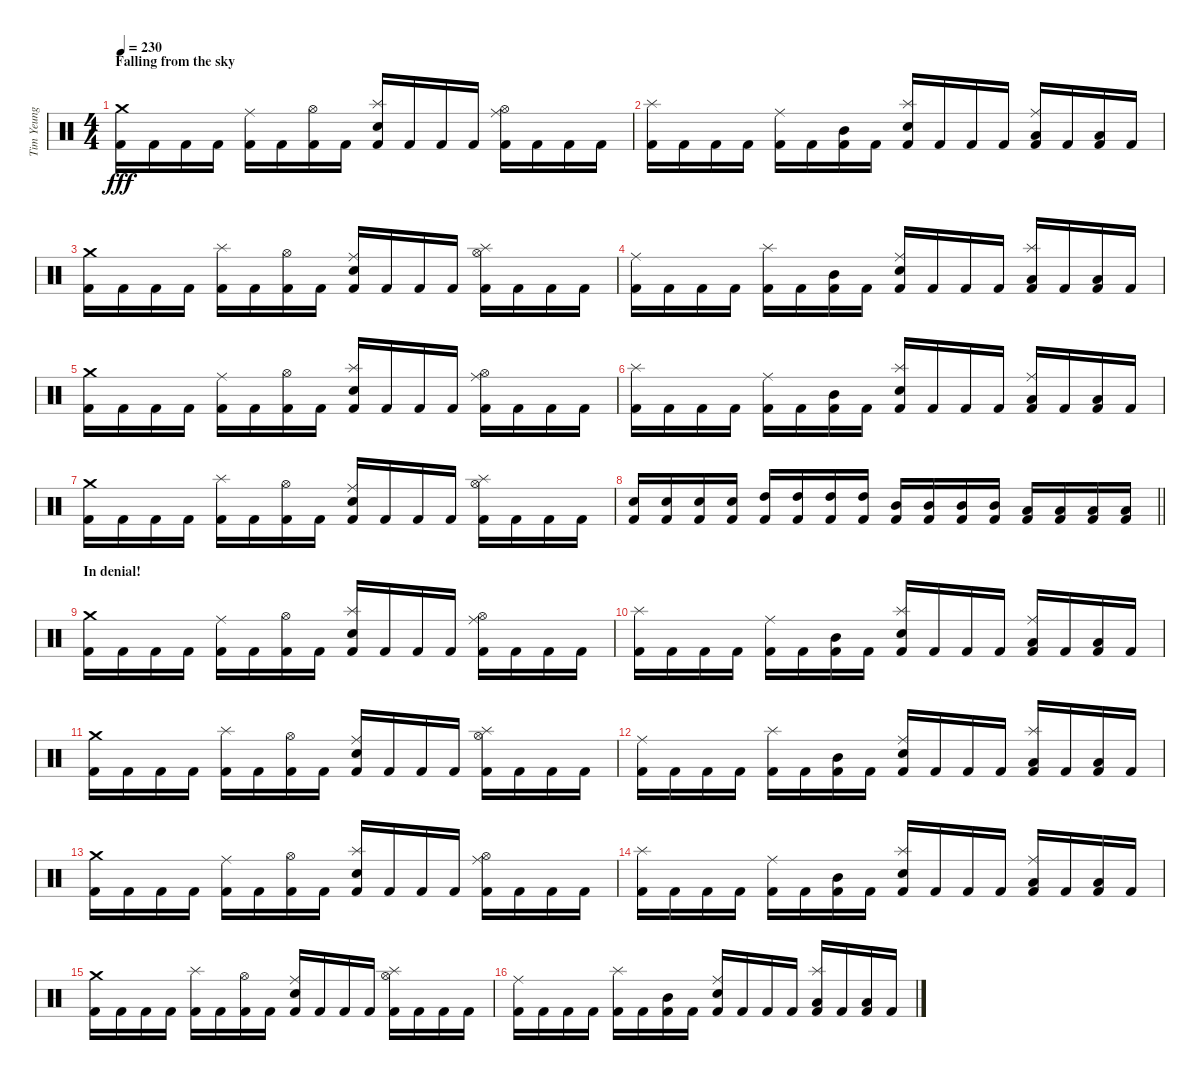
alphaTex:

\track ("Tim Yeung" "Tim Yeung") {instrument percussion}
\staff {score}
\articulation defaults
\ts (4 4)
\section ("" "Falling from the sky")
\tempo 230
\clef neutral
\ks c
("Crash medium (hit)" "Kick (hit) 2").16{dy fff} "Kick (hit) 2".16 "Kick (hit) 2".16 "Kick (hit) 2".16 ("Ride (middle)" "Kick (hit) 2").16 "Kick (hit) 2".16 ("Hi-Hat (open)" "Kick (hit) 2").16 "Kick (hit) 2".16 ("Splash (hit)" "Electric Snare (hit)" "Kick (hit) 2").16 "Kick (hit) 2".16 "Kick (hit) 2".16 "Kick (hit) 2".16 ("Ride (middle)" "Hi-Hat (open)" "Kick (hit) 2").16 "Kick (hit) 2".16 "Kick (hit) 2".16 "Kick (hit) 2".16 |
("Splash (hit)" "Kick (hit) 2").16 "Kick (hit) 2".16 "Kick (hit) 2".16 "Kick (hit) 2".16 ("Ride (middle)" "Kick (hit) 2").16 "Kick (hit) 2".16 ("Mid Tom (hit)" "Kick (hit) 2").16 "Kick (hit) 2".16 ("Splash (hit)" "Electric Snare (hit)" "Kick (hit) 2").16 "Kick (hit) 2".16 "Kick (hit) 2".16 "Kick (hit) 2".16 ("Ride (middle)" "Low Tom (hit)" "Kick (hit) 2").16 "Kick (hit) 2".16 ("Low Tom (hit)" "Kick (hit) 2").16 "Kick (hit) 2".16 |
("Crash medium (hit)" "Kick (hit) 2").16 "Kick (hit) 2".16 "Kick (hit) 2".16 "Kick (hit) 2".16 ("Splash (hit)" "Kick (hit) 2").16 "Kick (hit) 2".16 ("Hi-Hat (open)" "Kick (hit) 2").16 "Kick (hit) 2".16 ("Ride (middle)" "Electric Snare (hit)" "Kick (hit) 2").16 "Kick (hit) 2".16 "Kick (hit) 2".16 "Kick (hit) 2".16 ("Splash (hit)" "Hi-Hat (open)" "Kick (hit) 2").16 "Kick (hit) 2".16 "Kick (hit) 2".16 "Kick (hit) 2".16 |
("Ride (middle)" "Kick (hit) 2").16 "Kick (hit) 2".16 "Kick (hit) 2".16 "Kick (hit) 2".16 ("Splash (hit)" "Kick (hit) 2").16 "Kick (hit) 2".16 ("Mid Tom (hit)" "Kick (hit) 2").16 "Kick (hit) 2".16 ("Ride (middle)" "Electric Snare (hit)" "Kick (hit) 2").16 "Kick (hit) 2".16 "Kick (hit) 2".16 "Kick (hit) 2".16 ("Splash (hit)" "Low Tom (hit)" "Kick (hit) 2").16 "Kick (hit) 2".16 ("Low Tom (hit)" "Kick (hit) 2").16 "Kick (hit) 2".16 |
("Crash medium (hit)" "Kick (hit) 2").16 "Kick (hit) 2".16 "Kick (hit) 2".16 "Kick (hit) 2".16 ("Ride (middle)" "Kick (hit) 2").16 "Kick (hit) 2".16 ("Hi-Hat (open)" "Kick (hit) 2").16 "Kick (hit) 2".16 ("Splash (hit)" "Electric Snare (hit)" "Kick (hit) 2").16 "Kick (hit) 2".16 "Kick (hit) 2".16 "Kick (hit) 2".16 ("Ride (middle)" "Hi-Hat (open)" "Kick (hit) 2").16 "Kick (hit) 2".16 "Kick (hit) 2".16 "Kick (hit) 2".16 |
("Splash (hit)" "Kick (hit) 2").16 "Kick (hit) 2".16 "Kick (hit) 2".16 "Kick (hit) 2".16 ("Ride (middle)" "Kick (hit) 2").16 "Kick (hit) 2".16 ("Mid Tom (hit)" "Kick (hit) 2").16 "Kick (hit) 2".16 ("Splash (hit)" "Electric Snare (hit)" "Kick (hit) 2").16 "Kick (hit) 2".16 "Kick (hit) 2".16 "Kick (hit) 2".16 ("Ride (middle)" "Low Tom (hit)" "Kick (hit) 2").16 "Kick (hit) 2".16 ("Low Tom (hit)" "Kick (hit) 2").16 "Kick (hit) 2".16 |
("Crash medium (hit)" "Kick (hit) 2").16 "Kick (hit) 2".16 "Kick (hit) 2".16 "Kick (hit) 2".16 ("Splash (hit)" "Kick (hit) 2").16 "Kick (hit) 2".16 ("Hi-Hat (open)" "Kick (hit) 2").16 "Kick (hit) 2".16 ("Ride (middle)" "Electric Snare (hit)" "Kick (hit) 2").16 "Kick (hit) 2".16 "Kick (hit) 2".16 "Kick (hit) 2".16 ("Splash (hit)" "Hi-Hat (open)" "Kick (hit) 2").16 "Kick (hit) 2".16 "Kick (hit) 2".16 "Kick (hit) 2".16 |
\barLineRight lightlight
("Electric Snare (hit)" "Kick (hit) 2").16 ("Electric Snare (hit)" "Kick (hit) 2").16 ("Electric Snare (hit)" "Kick (hit) 2").16 ("Electric Snare (hit)" "Kick (hit) 2").16 ("High Tom (hit)" "Kick (hit) 2").16 ("High Tom (hit)" "Kick (hit) 2").16 ("High Tom (hit)" "Kick (hit) 2").16 ("High Tom (hit)" "Kick (hit) 2").16 ("Mid Tom (hit)" "Kick (hit) 2").16 ("Mid Tom (hit)" "Kick (hit) 2").16 ("Mid Tom (hit)" "Kick (hit) 2").16 ("Mid Tom (hit)" "Kick (hit) 2").16 ("Low Tom (hit)" "Kick (hit) 2").16 ("Low Tom (hit)" "Kick (hit) 2").16 ("Low Tom (hit)" "Kick (hit) 2").16 ("Low Tom (hit)" "Kick (hit) 2").16 |
\section ("" "In denial!")
("Crash medium (hit)" "Kick (hit) 2").16 "Kick (hit) 2".16 "Kick (hit) 2".16 "Kick (hit) 2".16 ("Ride (middle)" "Kick (hit) 2").16 "Kick (hit) 2".16 ("Hi-Hat (open)" "Kick (hit) 2").16 "Kick (hit) 2".16 ("Splash (hit)" "Electric Snare (hit)" "Kick (hit) 2").16 "Kick (hit) 2".16 "Kick (hit) 2".16 "Kick (hit) 2".16 ("Ride (middle)" "Hi-Hat (open)" "Kick (hit) 2").16 "Kick (hit) 2".16 "Kick (hit) 2".16 "Kick (hit) 2".16 |
("Splash (hit)" "Kick (hit) 2").16 "Kick (hit) 2".16 "Kick (hit) 2".16 "Kick (hit) 2".16 ("Ride (middle)" "Kick (hit) 2").16 "Kick (hit) 2".16 ("Mid Tom (hit)" "Kick (hit) 2").16 "Kick (hit) 2".16 ("Splash (hit)" "Electric Snare (hit)" "Kick (hit) 2").16 "Kick (hit) 2".16 "Kick (hit) 2".16 "Kick (hit) 2".16 ("Ride (middle)" "Low Tom (hit)" "Kick (hit) 2").16 "Kick (hit) 2".16 ("Low Tom (hit)" "Kick (hit) 2").16 "Kick (hit) 2".16 |
("Crash medium (hit)" "Kick (hit) 2").16 "Kick (hit) 2".16 "Kick (hit) 2".16 "Kick (hit) 2".16 ("Splash (hit)" "Kick (hit) 2").16 "Kick (hit) 2".16 ("Hi-Hat (open)" "Kick (hit) 2").16 "Kick (hit) 2".16 ("Ride (middle)" "Electric Snare (hit)" "Kick (hit) 2").16 "Kick (hit) 2".16 "Kick (hit) 2".16 "Kick (hit) 2".16 ("Splash (hit)" "Hi-Hat (open)" "Kick (hit) 2").16 "Kick (hit) 2".16 "Kick (hit) 2".16 "Kick (hit) 2".16 |
("Ride (middle)" "Kick (hit) 2").16 "Kick (hit) 2".16 "Kick (hit) 2".16 "Kick (hit) 2".16 ("Splash (hit)" "Kick (hit) 2").16 "Kick (hit) 2".16 ("Mid Tom (hit)" "Kick (hit) 2").16 "Kick (hit) 2".16 ("Ride (middle)" "Electric Snare (hit)" "Kick (hit) 2").16 "Kick (hit) 2".16 "Kick (hit) 2".16 "Kick (hit) 2".16 ("Splash (hit)" "Low Tom (hit)" "Kick (hit) 2").16 "Kick (hit) 2".16 ("Low Tom (hit)" "Kick (hit) 2").16 "Kick (hit) 2".16 |
("Crash medium (hit)" "Kick (hit) 2").16 "Kick (hit) 2".16 "Kick (hit) 2".16 "Kick (hit) 2".16 ("Ride (middle)" "Kick (hit) 2").16 "Kick (hit) 2".16 ("Hi-Hat (open)" "Kick (hit) 2").16 "Kick (hit) 2".16 ("Splash (hit)" "Electric Snare (hit)" "Kick (hit) 2").16 "Kick (hit) 2".16 "Kick (hit) 2".16 "Kick (hit) 2".16 ("Ride (middle)" "Hi-Hat (open)" "Kick (hit) 2").16 "Kick (hit) 2".16 "Kick (hit) 2".16 "Kick (hit) 2".16 |
("Splash (hit)" "Kick (hit) 2").16 "Kick (hit) 2".16 "Kick (hit) 2".16 "Kick (hit) 2".16 ("Ride (middle)" "Kick (hit) 2").16 "Kick (hit) 2".16 ("Mid Tom (hit)" "Kick (hit) 2").16 "Kick (hit) 2".16 ("Splash (hit)" "Electric Snare (hit)" "Kick (hit) 2").16 "Kick (hit) 2".16 "Kick (hit) 2".16 "Kick (hit) 2".16 ("Ride (middle)" "Low Tom (hit)" "Kick (hit) 2").16 "Kick (hit) 2".16 ("Low Tom (hit)" "Kick (hit) 2").16 "Kick (hit) 2".16 |
("Crash medium (hit)" "Kick (hit) 2").16 "Kick (hit) 2".16 "Kick (hit) 2".16 "Kick (hit) 2".16 ("Splash (hit)" "Kick (hit) 2").16 "Kick (hit) 2".16 ("Hi-Hat (open)" "Kick (hit) 2").16 "Kick (hit) 2".16 ("Ride (middle)" "Electric Snare (hit)" "Kick (hit) 2").16 "Kick (hit) 2".16 "Kick (hit) 2".16 "Kick (hit) 2".16 ("Splash (hit)" "Hi-Hat (open)" "Kick (hit) 2").16 "Kick (hit) 2".16 "Kick (hit) 2".16 "Kick (hit) 2".16 |
("Ride (middle)" "Kick (hit) 2").16 "Kick (hit) 2".16 "Kick (hit) 2".16 "Kick (hit) 2".16 ("Splash (hit)" "Kick (hit) 2").16 "Kick (hit) 2".16 ("Mid Tom (hit)" "Kick (hit) 2").16 "Kick (hit) 2".16 ("Ride (middle)" "Electric Snare (hit)" "Kick (hit) 2").16 "Kick (hit) 2".16 "Kick (hit) 2".16 "Kick (hit) 2".16 ("Splash (hit)" "Low Tom (hit)" "Kick (hit) 2").16 "Kick (hit) 2".16 ("Low Tom (hit)" "Kick (hit) 2").16 "Kick (hit) 2".16
